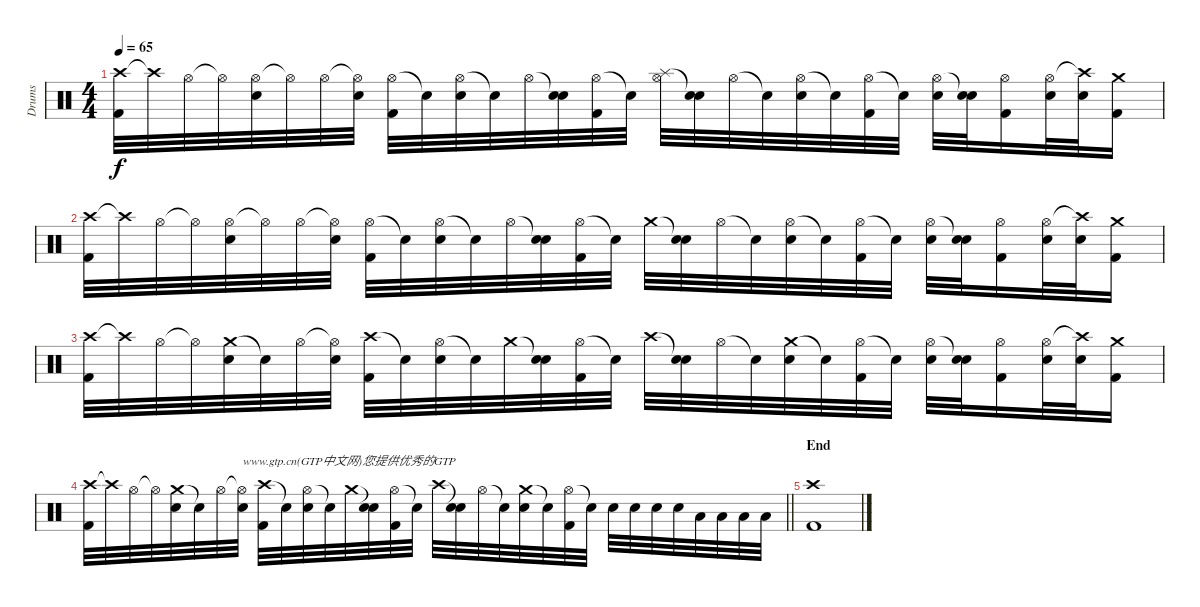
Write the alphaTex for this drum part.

\track ("Drums" "Drums") {instrument percussion}
\staff {score}
\articulation defaults
\ts (4 4)
\tempo 65
\clef neutral
\ks c
("Crash high (hit)" "Kick (hit) 2").32{dy f} "Crash high (hit)"{t}.32 "Hi-Hat (open)".32 "Hi-Hat (open)"{t}.32 ("Hi-Hat (open)" "Electric Snare (hit)").32 "Hi-Hat (open)"{t}.32 "Hi-Hat (open)".32 ("Hi-Hat (open)"{t} "Electric Snare (hit)").32 ("Hi-Hat (open)" "Kick (hit) 2").32 "Snare (hit)"{t}.32 ("Hi-Hat (open)" "Electric Snare (hit)").32 "Snare (hit)"{t}.32 "Hi-Hat (open)".32 ("Snare (hit)"{t} "Electric Snare (hit)").32 ("Hi-Hat (open)" "Kick (hit) 2").32 "Snare (hit)"{t}.32 ("Splash (hit)" "Hi-Hat (open)").32 ("Snare (hit)"{t} "Electric Snare (hit)").32 "Hi-Hat (open)".32 "Snare (hit)"{t}.32 ("Hi-Hat (open)" "Electric Snare (hit)").32 "Snare (hit)"{t}.32 ("Hi-Hat (open)" "Kick (hit) 2").32 "Snare (hit)"{t}.32 ("Hi-Hat (open)" "Electric Snare (hit)").32 ("Snare (hit)"{t} "Electric Snare (hit)").32 ("Hi-Hat (open)" "Kick (hit) 2").16 ("Hi-Hat (open)" "Electric Snare (hit)").32 ("Crash high (hit)"{t} "Electric Snare (hit)").32 ("Crash medium (hit)" "Kick (hit) 2").16 |
("Crash high (hit)" "Kick (hit) 2").32 "Crash high (hit)"{t}.32 "Hi-Hat (open)".32 "Hi-Hat (open)"{t}.32 ("Hi-Hat (open)" "Electric Snare (hit)").32 "Hi-Hat (open)"{t}.32 "Hi-Hat (open)".32 ("Hi-Hat (open)"{t} "Electric Snare (hit)").32 ("Hi-Hat (open)" "Kick (hit) 2").32 "Snare (hit)"{t}.32 ("Hi-Hat (open)" "Electric Snare (hit)").32 "Snare (hit)"{t}.32 "Hi-Hat (open)".32 ("Snare (hit)"{t} "Electric Snare (hit)").32 ("Hi-Hat (open)" "Kick (hit) 2").32 "Snare (hit)"{t}.32 "Crash medium (hit)".32 ("Snare (hit)"{t} "Electric Snare (hit)").32 "Hi-Hat (open)".32 "Snare (hit)"{t}.32 ("Hi-Hat (open)" "Electric Snare (hit)").32 "Snare (hit)"{t}.32 ("Hi-Hat (open)" "Kick (hit) 2").32 "Snare (hit)"{t}.32 ("Hi-Hat (open)" "Electric Snare (hit)").32 ("Snare (hit)"{t} "Electric Snare (hit)").32 ("Hi-Hat (open)" "Kick (hit) 2").16 ("Hi-Hat (open)" "Electric Snare (hit)").32 ("Crash high (hit)"{t} "Electric Snare (hit)").32 ("Crash medium (hit)" "Kick (hit) 2").16 |
("Crash high (hit)" "Kick (hit) 2").32 "Crash high (hit)"{t}.32 "Hi-Hat (open)".32 "Hi-Hat (open)"{t}.32 ("Crash medium (hit)" "Electric Snare (hit)").32 "Snare (hit)"{t}.32 "Hi-Hat (open)".32 ("Hi-Hat (open)"{t} "Electric Snare (hit)").32 ("Crash high (hit)" "Kick (hit) 2").32 "Snare (hit)"{t}.32 ("Hi-Hat (open)" "Electric Snare (hit)").32 "Snare (hit)"{t}.32 "Crash medium (hit)".32 ("Snare (hit)"{t} "Electric Snare (hit)").32 ("Hi-Hat (open)" "Kick (hit) 2").32 "Snare (hit)"{t}.32 "Crash high (hit)".32 ("Snare (hit)"{t} "Electric Snare (hit)").32 "Hi-Hat (open)".32 "Snare (hit)"{t}.32 ("Crash medium (hit)" "Electric Snare (hit)").32 "Snare (hit)"{t}.32 ("Hi-Hat (open)" "Kick (hit) 2").32 "Snare (hit)"{t}.32 ("Hi-Hat (open)" "Electric Snare (hit)").32 ("Snare (hit)"{t} "Electric Snare (hit)").32 ("Hi-Hat (open)" "Kick (hit) 2").16 ("Hi-Hat (open)" "Electric Snare (hit)").32 ("Crash high (hit)"{t} "Electric Snare (hit)").32 ("Crash medium (hit)" "Kick (hit) 2").16 |
\barLineRight lightlight
("Crash high (hit)" "Kick (hit) 2").32 "Crash high (hit)"{t}.32 "Hi-Hat (open)".32 "Hi-Hat (open)"{t}.32 ("Crash medium (hit)" "Electric Snare (hit)").32 "Snare (hit)"{t}.32 "Hi-Hat (open)".32 ("Hi-Hat (open)"{t} "Electric Snare (hit)").32{txt "www.gtp.cn(GTP中文网)您提供优秀的GTP"} ("Crash high (hit)" "Kick (hit) 2").32 "Snare (hit)"{t}.32 ("Hi-Hat (open)" "Electric Snare (hit)").32 "Snare (hit)"{t}.32 "Crash medium (hit)".32 ("Snare (hit)"{t} "Electric Snare (hit)").32 ("Hi-Hat (open)" "Kick (hit) 2").32 "Snare (hit)"{t}.32 "Crash high (hit)".32 ("Snare (hit)"{t} "Electric Snare (hit)").32 "Hi-Hat (open)".32 "Snare (hit)"{t}.32 ("Crash medium (hit)" "Electric Snare (hit)").32 "Snare (hit)"{t}.32 ("Hi-Hat (open)" "Kick (hit) 2").32 "Snare (hit)"{t}.32 "Electric Snare (hit)".32 "Electric Snare (hit)".32 "Electric Snare (hit)".32 "Electric Snare (hit)".32 "Low Floor Tom (hit)".32 "Low Floor Tom (hit)".32 "Low Floor Tom (hit)".32 "Low Floor Tom (hit)".32 |
\section ("" "End")
("Crash high (hit)" "Kick (hit) 2").1
